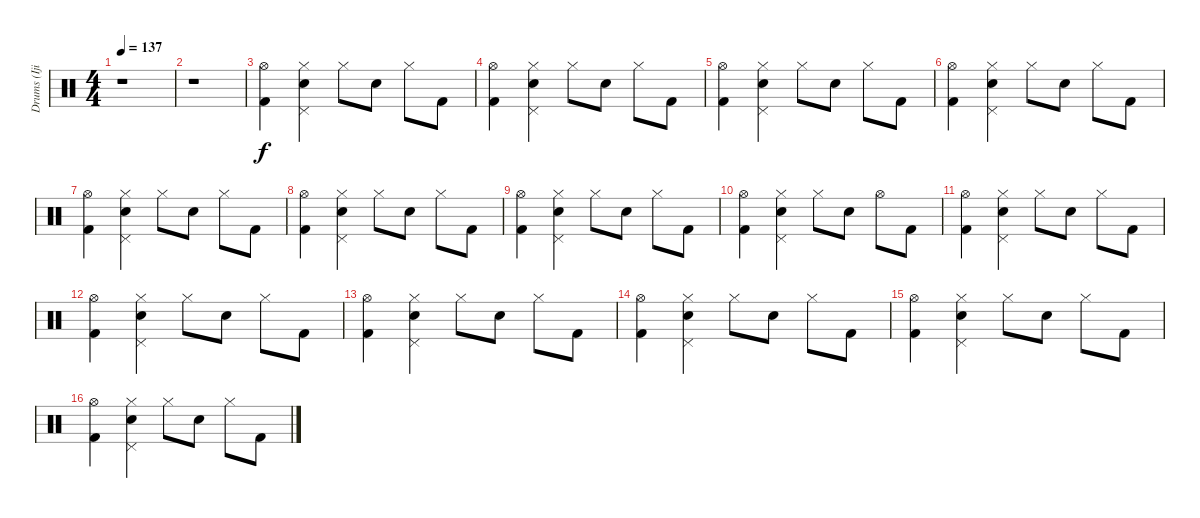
\track ("Drums (Ijichi)" "Drums (Iji") {instrument percussion}
\staff {score}
\articulation defaults
\ts (4 4)
\tempo 137
\clef neutral
\ks c
r.1{dy f} |
r.1 |
("Hi-Hat (open)" "Kick (hit) 2").4 ("Hi-Hat (closed)" "Pedal Hi-Hat (hit)" "Snare (hit) 2").4 "Hi-Hat (closed)".8 "Snare (hit) 2".8 "Hi-Hat (closed)".8 "Kick (hit) 2".8 |
("Hi-Hat (open)" "Kick (hit) 2").4 ("Hi-Hat (closed)" "Pedal Hi-Hat (hit)" "Snare (hit) 2").4 "Hi-Hat (closed)".8 "Snare (hit) 2".8 "Hi-Hat (closed)".8 "Kick (hit) 2".8 |
("Hi-Hat (open)" "Kick (hit) 2").4 ("Hi-Hat (closed)" "Pedal Hi-Hat (hit)" "Snare (hit) 2").4 "Hi-Hat (closed)".8 "Snare (hit) 2".8 "Hi-Hat (closed)".8 "Kick (hit) 2".8 |
("Hi-Hat (open)" "Kick (hit) 2").4 ("Hi-Hat (closed)" "Pedal Hi-Hat (hit)" "Snare (hit) 2").4 "Hi-Hat (closed)".8 "Snare (hit) 2".8 "Hi-Hat (closed)".8 "Kick (hit) 2".8 |
("Hi-Hat (open)" "Kick (hit) 2").4 ("Hi-Hat (closed)" "Pedal Hi-Hat (hit)" "Snare (hit) 2").4 "Hi-Hat (closed)".8 "Snare (hit) 2".8 "Hi-Hat (closed)".8 "Kick (hit) 2".8 |
("Hi-Hat (open)" "Kick (hit) 2").4 ("Hi-Hat (closed)" "Pedal Hi-Hat (hit)" "Snare (hit) 2").4 "Hi-Hat (closed)".8 "Snare (hit) 2".8 "Hi-Hat (closed)".8 "Kick (hit) 2".8 |
("Hi-Hat (open)" "Kick (hit) 2").4 ("Hi-Hat (closed)" "Pedal Hi-Hat (hit)" "Snare (hit) 2").4 "Hi-Hat (closed)".8 "Snare (hit) 2".8 "Hi-Hat (closed)".8 "Kick (hit) 2".8 |
("Hi-Hat (open)" "Kick (hit) 2").4 ("Hi-Hat (closed)" "Pedal Hi-Hat (hit)" "Snare (hit) 2").4 "Hi-Hat (closed)".8 "Snare (hit) 2".8 "Hi-Hat (open)".8 "Kick (hit) 2".8 |
("Hi-Hat (open)" "Kick (hit) 2").4 ("Hi-Hat (closed)" "Pedal Hi-Hat (hit)" "Snare (hit) 2").4 "Hi-Hat (closed)".8 "Snare (hit) 2".8 "Hi-Hat (closed)".8 "Kick (hit) 2".8 |
("Hi-Hat (open)" "Kick (hit) 2").4 ("Hi-Hat (closed)" "Pedal Hi-Hat (hit)" "Snare (hit) 2").4 "Hi-Hat (closed)".8 "Snare (hit) 2".8 "Hi-Hat (closed)".8 "Kick (hit) 2".8 |
("Hi-Hat (open)" "Kick (hit) 2").4 ("Hi-Hat (closed)" "Pedal Hi-Hat (hit)" "Snare (hit) 2").4 "Hi-Hat (closed)".8 "Snare (hit) 2".8 "Hi-Hat (closed)".8 "Kick (hit) 2".8 |
("Hi-Hat (open)" "Kick (hit) 2").4 ("Hi-Hat (closed)" "Pedal Hi-Hat (hit)" "Snare (hit) 2").4 "Hi-Hat (closed)".8 "Snare (hit) 2".8 "Hi-Hat (closed)".8 "Kick (hit) 2".8 |
("Hi-Hat (open)" "Kick (hit) 2").4 ("Hi-Hat (closed)" "Pedal Hi-Hat (hit)" "Snare (hit) 2").4 "Hi-Hat (closed)".8 "Snare (hit) 2".8 "Hi-Hat (closed)".8 "Kick (hit) 2".8 |
("Hi-Hat (open)" "Kick (hit) 2").4 ("Hi-Hat (closed)" "Pedal Hi-Hat (hit)" "Snare (hit) 2").4 "Hi-Hat (closed)".8 "Snare (hit) 2".8 "Hi-Hat (closed)".8 "Kick (hit) 2".8
